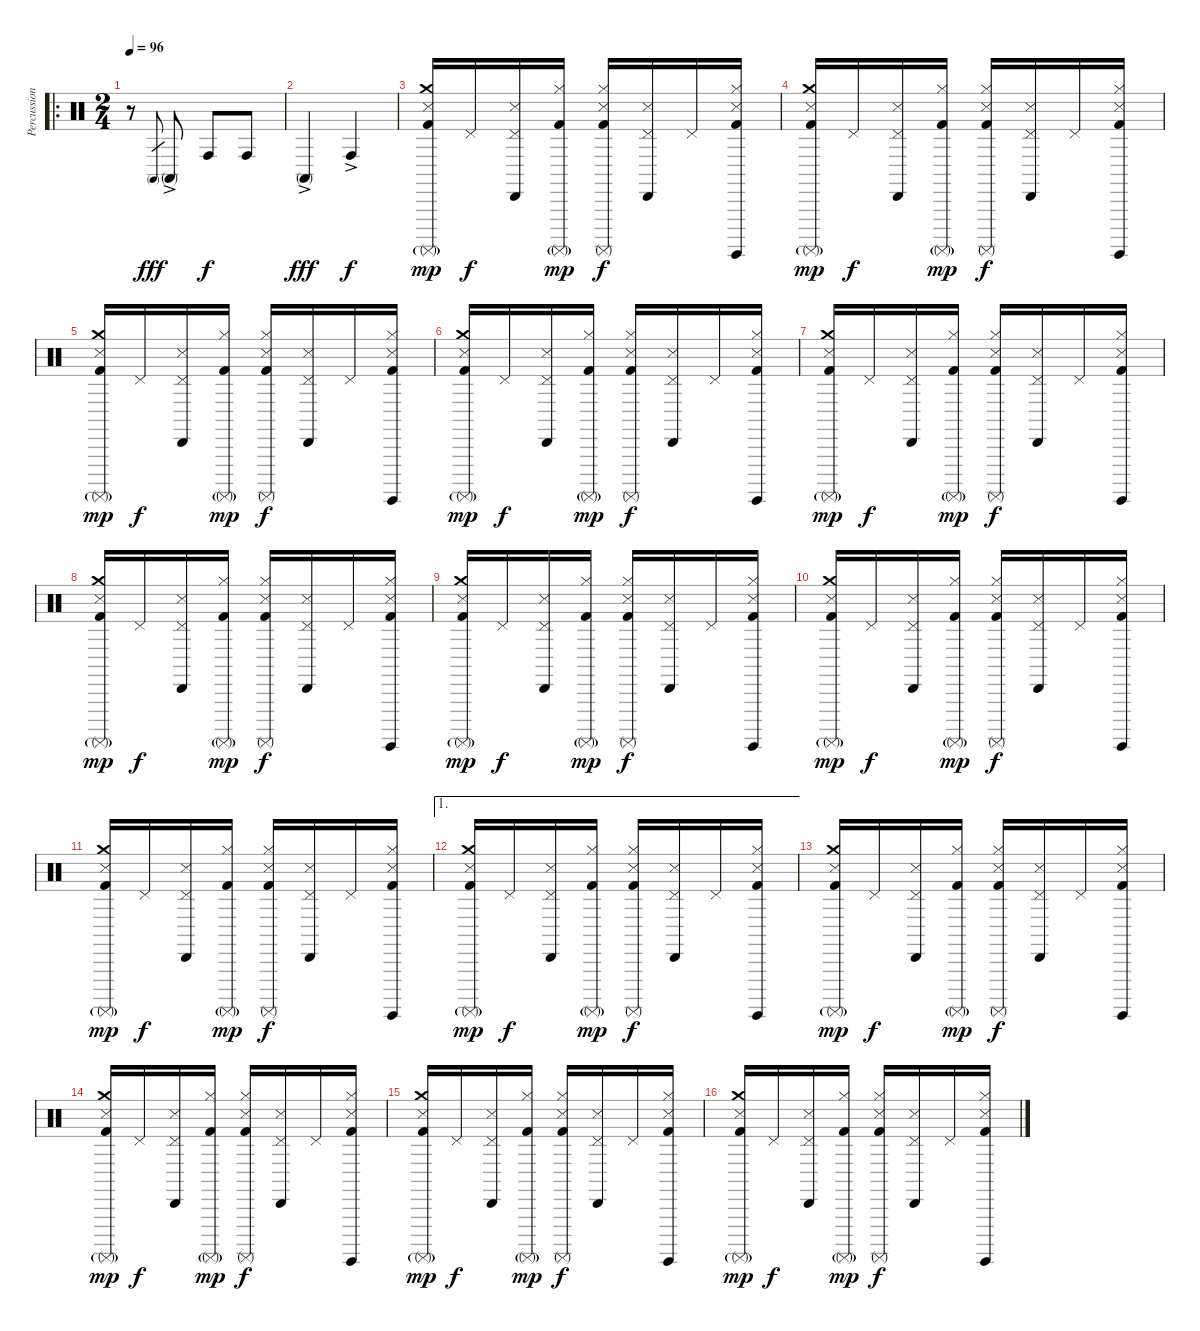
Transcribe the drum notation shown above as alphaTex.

\track ("Percussion" "Percussion") {instrument percussion}
\staff {score}
\articulation defaults
\ro
\ts (2 4)
\tempo 96
\clef neutral
\ks c
r.8{dy f volume 16} "Conga high (mute)".8{gr dy fff} "Conga high (mute)"{ac}.8 "Conga high (hit)".8{dy f} "Conga high (hit)".8 |
"Conga high (mute)"{ac}.4{dy fff} "Conga high (hit)"{ac}.4{dy f} |
("Crash medium (hit)" "Snare (side stick) 3" "Surdo (mute)"{g} "Kick (hit) 2").16{dy mp volume 12} "Pedal Hi-Hat (hit)".16{dy f} ("Pedal Hi-Hat (hit)" "Cabasa (hit)" "Snare (side stick) 3").16 ("Hi-Hat (closed)" "Surdo (mute)"{g} "Kick (hit) 2").16{dy mp} ("Hi-Hat (closed)" "Snare (side stick) 3" "Surdo (mute)" "Kick (hit) 2").16{dy f} ("Pedal Hi-Hat (hit)" "Cabasa (hit)" "Snare (side stick) 3").16 "Pedal Hi-Hat (hit)".16 ("Hi-Hat (closed)" "Snare (side stick) 3" "Surdo (hit)" "Kick (hit) 2").16 |
("Crash medium (hit)" "Snare (side stick) 3" "Surdo (mute)"{g} "Kick (hit) 2").16{dy mp volume 12} "Pedal Hi-Hat (hit)".16{dy f} ("Pedal Hi-Hat (hit)" "Cabasa (hit)" "Snare (side stick) 3").16 ("Hi-Hat (closed)" "Surdo (mute)"{g} "Kick (hit) 2").16{dy mp} ("Hi-Hat (closed)" "Snare (side stick) 3" "Surdo (mute)" "Kick (hit) 2").16{dy f} ("Pedal Hi-Hat (hit)" "Cabasa (hit)" "Snare (side stick) 3").16 "Pedal Hi-Hat (hit)".16 ("Hi-Hat (closed)" "Snare (side stick) 3" "Surdo (hit)" "Kick (hit) 2").16 |
("Crash medium (hit)" "Snare (side stick) 3" "Surdo (mute)"{g} "Kick (hit) 2").16{dy mp volume 12} "Pedal Hi-Hat (hit)".16{dy f} ("Pedal Hi-Hat (hit)" "Cabasa (hit)" "Snare (side stick) 3").16 ("Hi-Hat (closed)" "Surdo (mute)"{g} "Kick (hit) 2").16{dy mp} ("Hi-Hat (closed)" "Snare (side stick) 3" "Surdo (mute)" "Kick (hit) 2").16{dy f} ("Pedal Hi-Hat (hit)" "Cabasa (hit)" "Snare (side stick) 3").16 "Pedal Hi-Hat (hit)".16 ("Hi-Hat (closed)" "Snare (side stick) 3" "Surdo (hit)" "Kick (hit) 2").16 |
("Crash medium (hit)" "Snare (side stick) 3" "Surdo (mute)"{g} "Kick (hit) 2").16{dy mp volume 12} "Pedal Hi-Hat (hit)".16{dy f} ("Pedal Hi-Hat (hit)" "Cabasa (hit)" "Snare (side stick) 3").16 ("Hi-Hat (closed)" "Surdo (mute)"{g} "Kick (hit) 2").16{dy mp} ("Hi-Hat (closed)" "Snare (side stick) 3" "Surdo (mute)" "Kick (hit) 2").16{dy f} ("Pedal Hi-Hat (hit)" "Cabasa (hit)" "Snare (side stick) 3").16 "Pedal Hi-Hat (hit)".16 ("Hi-Hat (closed)" "Snare (side stick) 3" "Surdo (hit)" "Kick (hit) 2").16 |
("Crash medium (hit)" "Snare (side stick) 3" "Surdo (mute)"{g} "Kick (hit) 2").16{dy mp volume 12} "Pedal Hi-Hat (hit)".16{dy f} ("Pedal Hi-Hat (hit)" "Cabasa (hit)" "Snare (side stick) 3").16 ("Hi-Hat (closed)" "Surdo (mute)"{g} "Kick (hit) 2").16{dy mp} ("Hi-Hat (closed)" "Snare (side stick) 3" "Surdo (mute)" "Kick (hit) 2").16{dy f} ("Pedal Hi-Hat (hit)" "Cabasa (hit)" "Snare (side stick) 3").16 "Pedal Hi-Hat (hit)".16 ("Hi-Hat (closed)" "Snare (side stick) 3" "Surdo (hit)" "Kick (hit) 2").16 |
("Crash medium (hit)" "Snare (side stick) 3" "Surdo (mute)"{g} "Kick (hit) 2").16{dy mp volume 12} "Pedal Hi-Hat (hit)".16{dy f} ("Pedal Hi-Hat (hit)" "Cabasa (hit)" "Snare (side stick) 3").16 ("Hi-Hat (closed)" "Surdo (mute)"{g} "Kick (hit) 2").16{dy mp} ("Hi-Hat (closed)" "Snare (side stick) 3" "Surdo (mute)" "Kick (hit) 2").16{dy f} ("Pedal Hi-Hat (hit)" "Cabasa (hit)" "Snare (side stick) 3").16 "Pedal Hi-Hat (hit)".16 ("Hi-Hat (closed)" "Snare (side stick) 3" "Surdo (hit)" "Kick (hit) 2").16 |
("Crash medium (hit)" "Snare (side stick) 3" "Surdo (mute)"{g} "Kick (hit) 2").16{dy mp volume 12} "Pedal Hi-Hat (hit)".16{dy f} ("Pedal Hi-Hat (hit)" "Cabasa (hit)" "Snare (side stick) 3").16 ("Hi-Hat (closed)" "Surdo (mute)"{g} "Kick (hit) 2").16{dy mp} ("Hi-Hat (closed)" "Snare (side stick) 3" "Surdo (mute)" "Kick (hit) 2").16{dy f} ("Pedal Hi-Hat (hit)" "Cabasa (hit)" "Snare (side stick) 3").16 "Pedal Hi-Hat (hit)".16 ("Hi-Hat (closed)" "Snare (side stick) 3" "Surdo (hit)" "Kick (hit) 2").16 |
("Crash medium (hit)" "Snare (side stick) 3" "Surdo (mute)"{g} "Kick (hit) 2").16{dy mp volume 12} "Pedal Hi-Hat (hit)".16{dy f} ("Pedal Hi-Hat (hit)" "Cabasa (hit)" "Snare (side stick) 3").16 ("Hi-Hat (closed)" "Surdo (mute)"{g} "Kick (hit) 2").16{dy mp} ("Hi-Hat (closed)" "Snare (side stick) 3" "Surdo (mute)" "Kick (hit) 2").16{dy f} ("Pedal Hi-Hat (hit)" "Cabasa (hit)" "Snare (side stick) 3").16 "Pedal Hi-Hat (hit)".16 ("Hi-Hat (closed)" "Snare (side stick) 3" "Surdo (hit)" "Kick (hit) 2").16 |
("Crash medium (hit)" "Snare (side stick) 3" "Surdo (mute)"{g} "Kick (hit) 2").16{dy mp volume 12} "Pedal Hi-Hat (hit)".16{dy f} ("Pedal Hi-Hat (hit)" "Cabasa (hit)" "Snare (side stick) 3").16 ("Hi-Hat (closed)" "Surdo (mute)"{g} "Kick (hit) 2").16{dy mp} ("Hi-Hat (closed)" "Snare (side stick) 3" "Surdo (mute)" "Kick (hit) 2").16{dy f} ("Pedal Hi-Hat (hit)" "Cabasa (hit)" "Snare (side stick) 3").16 "Pedal Hi-Hat (hit)".16 ("Hi-Hat (closed)" "Snare (side stick) 3" "Surdo (hit)" "Kick (hit) 2").16 |
\ae 1
("Crash medium (hit)" "Snare (side stick) 3" "Surdo (mute)"{g} "Kick (hit) 2").16{dy mp volume 12} "Pedal Hi-Hat (hit)".16{dy f} ("Pedal Hi-Hat (hit)" "Cabasa (hit)" "Snare (side stick) 3").16 ("Hi-Hat (closed)" "Surdo (mute)"{g} "Kick (hit) 2").16{dy mp} ("Hi-Hat (closed)" "Snare (side stick) 3" "Surdo (mute)" "Kick (hit) 2").16{dy f} ("Pedal Hi-Hat (hit)" "Cabasa (hit)" "Snare (side stick) 3").16 "Pedal Hi-Hat (hit)".16 ("Hi-Hat (closed)" "Snare (side stick) 3" "Surdo (hit)" "Kick (hit) 2").16 |
("Crash medium (hit)" "Snare (side stick) 3" "Surdo (mute)"{g} "Kick (hit) 2").16{dy mp volume 12} "Pedal Hi-Hat (hit)".16{dy f} ("Pedal Hi-Hat (hit)" "Cabasa (hit)" "Snare (side stick) 3").16 ("Hi-Hat (closed)" "Surdo (mute)"{g} "Kick (hit) 2").16{dy mp} ("Hi-Hat (closed)" "Snare (side stick) 3" "Surdo (mute)" "Kick (hit) 2").16{dy f} ("Pedal Hi-Hat (hit)" "Cabasa (hit)" "Snare (side stick) 3").16 "Pedal Hi-Hat (hit)".16 ("Hi-Hat (closed)" "Snare (side stick) 3" "Surdo (hit)" "Kick (hit) 2").16 |
("Crash medium (hit)" "Snare (side stick) 3" "Surdo (mute)"{g} "Kick (hit) 2").16{dy mp volume 12} "Pedal Hi-Hat (hit)".16{dy f} ("Pedal Hi-Hat (hit)" "Cabasa (hit)" "Snare (side stick) 3").16 ("Hi-Hat (closed)" "Surdo (mute)"{g} "Kick (hit) 2").16{dy mp} ("Hi-Hat (closed)" "Snare (side stick) 3" "Surdo (mute)" "Kick (hit) 2").16{dy f} ("Pedal Hi-Hat (hit)" "Cabasa (hit)" "Snare (side stick) 3").16 "Pedal Hi-Hat (hit)".16 ("Hi-Hat (closed)" "Snare (side stick) 3" "Surdo (hit)" "Kick (hit) 2").16 |
("Crash medium (hit)" "Snare (side stick) 3" "Surdo (mute)"{g} "Kick (hit) 2").16{dy mp volume 12} "Pedal Hi-Hat (hit)".16{dy f} ("Pedal Hi-Hat (hit)" "Cabasa (hit)" "Snare (side stick) 3").16 ("Hi-Hat (closed)" "Surdo (mute)"{g} "Kick (hit) 2").16{dy mp} ("Hi-Hat (closed)" "Snare (side stick) 3" "Surdo (mute)" "Kick (hit) 2").16{dy f} ("Pedal Hi-Hat (hit)" "Cabasa (hit)" "Snare (side stick) 3").16 "Pedal Hi-Hat (hit)".16 ("Hi-Hat (closed)" "Snare (side stick) 3" "Surdo (hit)" "Kick (hit) 2").16 |
("Crash medium (hit)" "Snare (side stick) 3" "Surdo (mute)"{g} "Kick (hit) 2").16{dy mp volume 12} "Pedal Hi-Hat (hit)".16{dy f} ("Pedal Hi-Hat (hit)" "Cabasa (hit)" "Snare (side stick) 3").16 ("Hi-Hat (closed)" "Surdo (mute)"{g} "Kick (hit) 2").16{dy mp} ("Hi-Hat (closed)" "Snare (side stick) 3" "Surdo (mute)" "Kick (hit) 2").16{dy f} ("Pedal Hi-Hat (hit)" "Cabasa (hit)" "Snare (side stick) 3").16 "Pedal Hi-Hat (hit)".16 ("Hi-Hat (closed)" "Snare (side stick) 3" "Surdo (hit)" "Kick (hit) 2").16
